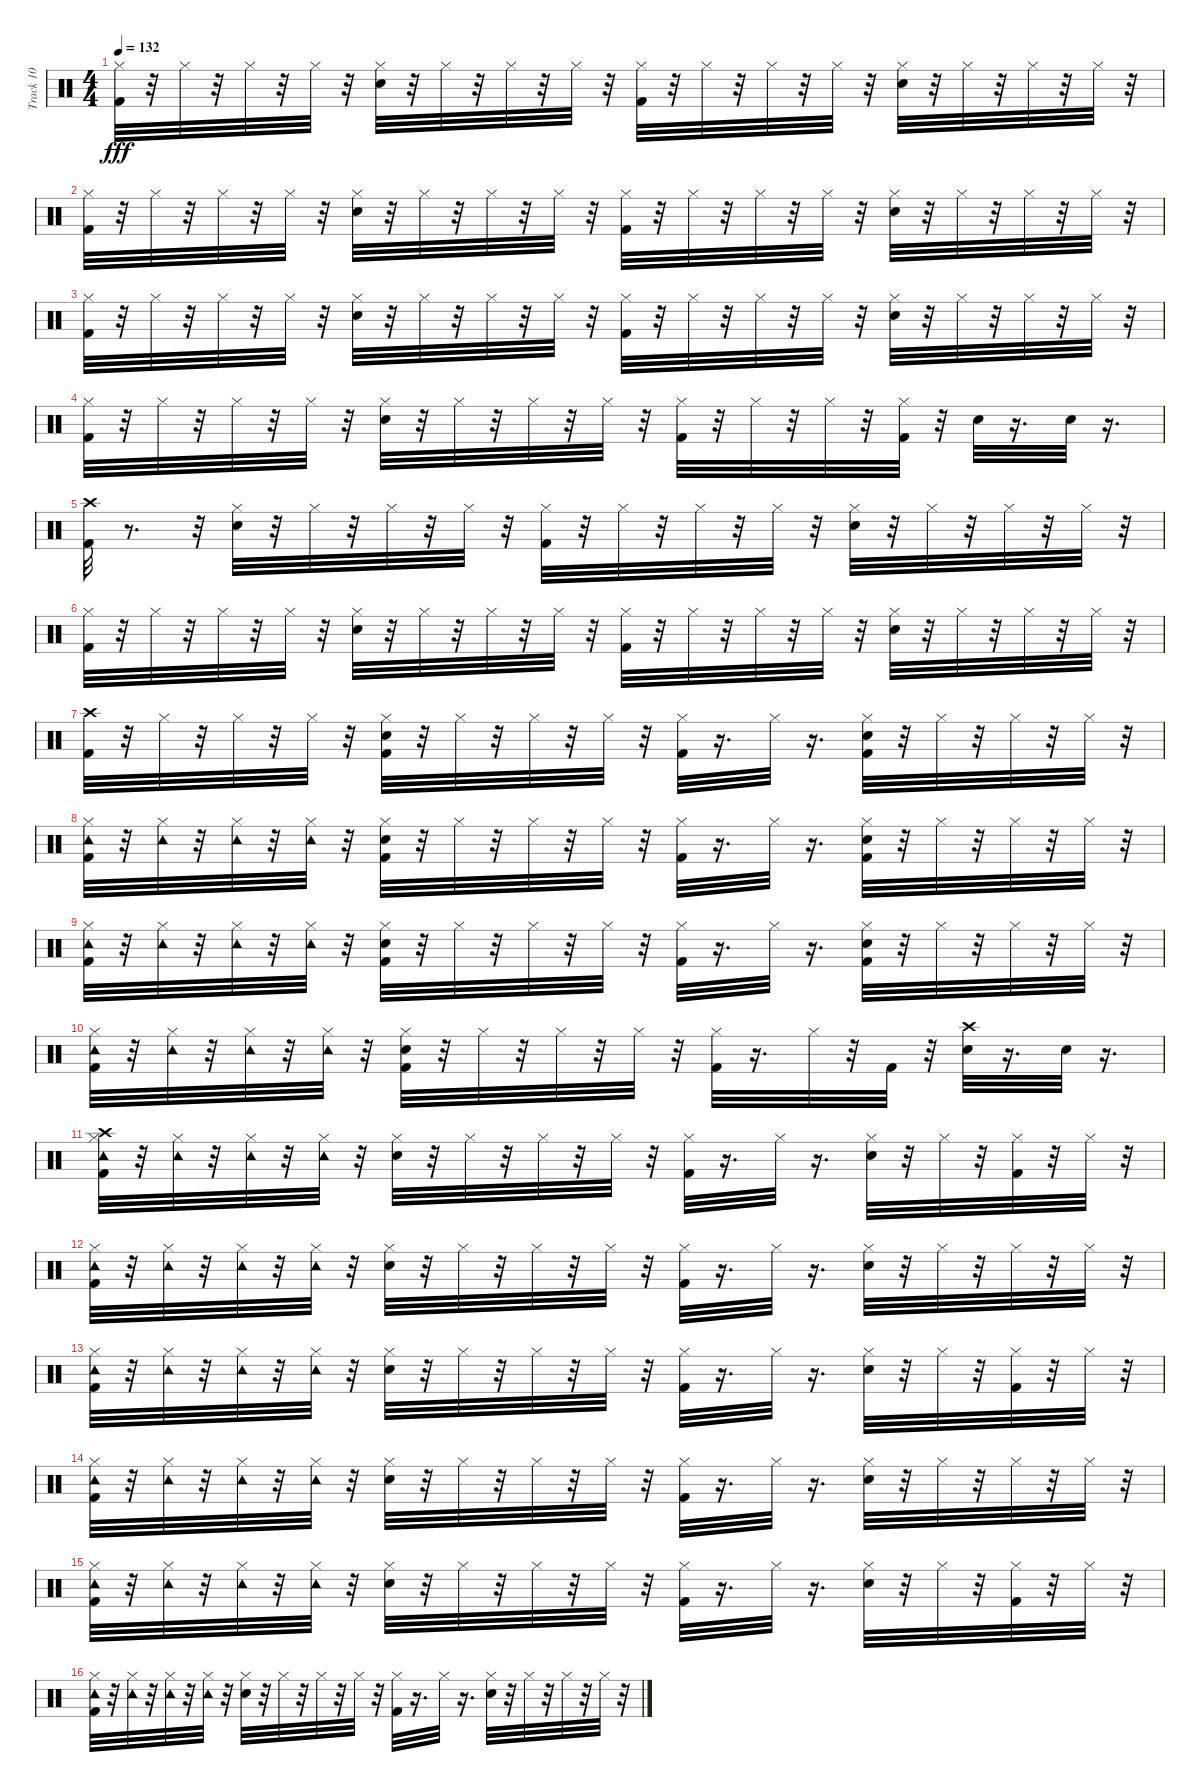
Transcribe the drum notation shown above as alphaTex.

\track ("Track 10" "Track 10") {instrument percussion}
\staff {score}
\articulation defaults
\ts (4 4)
\tempo 132
\clef neutral
\ks c
("Kick (hit) 2" "Hi-Hat (closed)").32{dy fff} r.32 "Hi-Hat (closed)".32 r.32 "Hi-Hat (closed)".32 r.32 "Hi-Hat (closed)".32 r.32 ("Snare (hit) 2" "Hi-Hat (closed)").32 r.32 "Hi-Hat (closed)".32 r.32 "Hi-Hat (closed)".32 r.32 "Hi-Hat (closed)".32 r.32 ("Kick (hit) 2" "Hi-Hat (closed)").32 r.32 "Hi-Hat (closed)".32 r.32 "Hi-Hat (closed)".32 r.32 "Hi-Hat (closed)".32 r.32 ("Snare (hit) 2" "Hi-Hat (closed)").32 r.32 "Hi-Hat (closed)".32 r.32 "Hi-Hat (closed)".32 r.32 "Hi-Hat (closed)".32 r.32 |
("Kick (hit) 2" "Hi-Hat (closed)").32 r.32 "Hi-Hat (closed)".32 r.32 "Hi-Hat (closed)".32 r.32 "Hi-Hat (closed)".32 r.32 ("Snare (hit) 2" "Hi-Hat (closed)").32 r.32 "Hi-Hat (closed)".32 r.32 "Hi-Hat (closed)".32 r.32 "Hi-Hat (closed)".32 r.32 ("Kick (hit) 2" "Hi-Hat (closed)").32 r.32 "Hi-Hat (closed)".32 r.32 "Hi-Hat (closed)".32 r.32 "Hi-Hat (closed)".32 r.32 ("Snare (hit) 2" "Hi-Hat (closed)").32 r.32 "Hi-Hat (closed)".32 r.32 "Hi-Hat (closed)".32 r.32 "Hi-Hat (closed)".32 r.32 |
("Kick (hit) 2" "Hi-Hat (closed)").32 r.32 "Hi-Hat (closed)".32 r.32 "Hi-Hat (closed)".32 r.32 "Hi-Hat (closed)".32 r.32 ("Snare (hit) 2" "Hi-Hat (closed)").32 r.32 "Hi-Hat (closed)".32 r.32 "Hi-Hat (closed)".32 r.32 "Hi-Hat (closed)".32 r.32 ("Kick (hit) 2" "Hi-Hat (closed)").32 r.32 "Hi-Hat (closed)".32 r.32 "Hi-Hat (closed)".32 r.32 "Hi-Hat (closed)".32 r.32 ("Snare (hit) 2" "Hi-Hat (closed)").32 r.32 "Hi-Hat (closed)".32 r.32 "Hi-Hat (closed)".32 r.32 "Hi-Hat (closed)".32 r.32 |
("Kick (hit) 2" "Hi-Hat (closed)").32 r.32 "Hi-Hat (closed)".32 r.32 "Hi-Hat (closed)".32 r.32 "Hi-Hat (closed)".32 r.32 ("Snare (hit) 2" "Hi-Hat (closed)").32 r.32 "Hi-Hat (closed)".32 r.32 "Hi-Hat (closed)".32 r.32 "Hi-Hat (closed)".32 r.32 ("Kick (hit) 2" "Hi-Hat (closed)").32 r.32 "Hi-Hat (closed)".32 r.32 "Hi-Hat (closed)".32 r.32 ("Kick (hit) 2" "Hi-Hat (closed)").32 r.32 "Snare (hit) 2".32 r.16{d} "Snare (hit) 2".32 r.16{d} |
("Crash high (hit)" "Kick (hit) 2").32 r.8{d} r.32 ("Snare (hit) 2" "Hi-Hat (closed)").32 r.32 "Hi-Hat (closed)".32 r.32 "Hi-Hat (closed)".32 r.32 "Hi-Hat (closed)".32 r.32 ("Kick (hit) 2" "Hi-Hat (closed)").32 r.32 "Hi-Hat (closed)".32 r.32 "Hi-Hat (closed)".32 r.32 "Hi-Hat (closed)".32 r.32 ("Snare (hit) 2" "Hi-Hat (closed)").32 r.32 "Hi-Hat (closed)".32 r.32 "Hi-Hat (closed)".32 r.32 "Hi-Hat (closed)".32 r.32 |
("Kick (hit) 2" "Hi-Hat (closed)").32 r.32 "Hi-Hat (closed)".32 r.32 "Hi-Hat (closed)".32 r.32 "Hi-Hat (closed)".32 r.32 ("Snare (hit) 2" "Hi-Hat (closed)").32 r.32 "Hi-Hat (closed)".32 r.32 "Hi-Hat (closed)".32 r.32 "Hi-Hat (closed)".32 r.32 ("Kick (hit) 2" "Hi-Hat (closed)").32 r.32 "Hi-Hat (closed)".32 r.32 "Hi-Hat (closed)".32 r.32 "Hi-Hat (closed)".32 r.32 ("Snare (hit) 2" "Hi-Hat (closed)").32 r.32 "Hi-Hat (closed)".32 r.32 "Hi-Hat (closed)".32 r.32 "Hi-Hat (closed)".32 r.32 |
("Crash high (hit)" "Kick (hit) 2").32 r.32 "Hi-Hat (closed)".32 r.32 "Hi-Hat (closed)".32 r.32 "Hi-Hat (closed)".32 r.32 ("Kick (hit) 2" "Snare (hit) 2" "Hi-Hat (closed)").32 r.32 "Hi-Hat (closed)".32 r.32 "Hi-Hat (closed)".32 r.32 "Hi-Hat (closed)".32 r.32 ("Kick (hit) 2" "Hi-Hat (closed)").32 r.16{d} "Hi-Hat (closed)".32 r.16{d} ("Kick (hit) 2" "Snare (hit) 2" "Hi-Hat (closed)").32 r.32 "Hi-Hat (closed)".32 r.32 "Hi-Hat (closed)".32 r.32 "Hi-Hat (closed)".32 r.32 |
("Tambourine (hit)" "Kick (hit) 2" "Hi-Hat (closed)").32 r.32 ("Tambourine (hit)" "Hi-Hat (closed)").32 r.32 ("Tambourine (hit)" "Hi-Hat (closed)").32 r.32 ("Tambourine (hit)" "Hi-Hat (closed)").32 r.32 ("Kick (hit) 2" "Snare (hit) 2" "Hi-Hat (closed)").32 r.32 "Hi-Hat (closed)".32 r.32 "Hi-Hat (closed)".32 r.32 "Hi-Hat (closed)".32 r.32 ("Kick (hit) 2" "Hi-Hat (closed)").32 r.16{d} "Hi-Hat (closed)".32 r.16{d} ("Kick (hit) 2" "Snare (hit) 2" "Hi-Hat (closed)").32 r.32 "Hi-Hat (closed)".32 r.32 "Hi-Hat (closed)".32 r.32 "Hi-Hat (closed)".32 r.32 |
("Tambourine (hit)" "Kick (hit) 2" "Hi-Hat (closed)").32 r.32 ("Tambourine (hit)" "Hi-Hat (closed)").32 r.32 ("Tambourine (hit)" "Hi-Hat (closed)").32 r.32 ("Tambourine (hit)" "Hi-Hat (closed)").32 r.32 ("Kick (hit) 2" "Snare (hit) 2" "Hi-Hat (closed)").32 r.32 "Hi-Hat (closed)".32 r.32 "Hi-Hat (closed)".32 r.32 "Hi-Hat (closed)".32 r.32 ("Kick (hit) 2" "Hi-Hat (closed)").32 r.16{d} "Hi-Hat (closed)".32 r.16{d} ("Kick (hit) 2" "Snare (hit) 2" "Hi-Hat (closed)").32 r.32 "Hi-Hat (closed)".32 r.32 "Hi-Hat (closed)".32 r.32 "Hi-Hat (closed)".32 r.32 |
("Tambourine (hit)" "Kick (hit) 2" "Hi-Hat (closed)").32 r.32 ("Tambourine (hit)" "Hi-Hat (closed)").32 r.32 ("Tambourine (hit)" "Hi-Hat (closed)").32 r.32 ("Tambourine (hit)" "Hi-Hat (closed)").32 r.32 ("Kick (hit) 2" "Snare (hit) 2" "Hi-Hat (closed)").32 r.32 "Hi-Hat (closed)".32 r.32 "Hi-Hat (closed)".32 r.32 "Hi-Hat (closed)".32 r.32 ("Kick (hit) 2" "Hi-Hat (closed)").32 r.16{d} "Hi-Hat (closed)".32 r.32 "Kick (hit) 2".32 r.32 ("Crash high (hit)" "Snare (hit) 2").32 r.16{d} "Snare (hit) 2".32 r.16{d} |
("Tambourine (hit)" "Crash high (hit)" "Kick (hit) 2" "Hi-Hat (closed)").32 r.32 ("Tambourine (hit)" "Hi-Hat (closed)").32 r.32 ("Tambourine (hit)" "Hi-Hat (closed)").32 r.32 ("Tambourine (hit)" "Hi-Hat (closed)").32 r.32 ("Snare (hit) 2" "Hi-Hat (closed)").32 r.32 "Hi-Hat (closed)".32 r.32 "Hi-Hat (closed)".32 r.32 "Hi-Hat (closed)".32 r.32 ("Kick (hit) 2" "Hi-Hat (closed)").32 r.16{d} "Hi-Hat (closed)".32 r.16{d} ("Snare (hit) 2" "Hi-Hat (closed)").32 r.32 "Hi-Hat (closed)".32 r.32 ("Kick (hit) 2" "Hi-Hat (closed)").32 r.32 "Hi-Hat (closed)".32 r.32 |
("Tambourine (hit)" "Kick (hit) 2" "Hi-Hat (closed)").32 r.32 ("Tambourine (hit)" "Hi-Hat (closed)").32 r.32 ("Tambourine (hit)" "Hi-Hat (closed)").32 r.32 ("Tambourine (hit)" "Hi-Hat (closed)").32 r.32 ("Snare (hit) 2" "Hi-Hat (closed)").32 r.32 "Hi-Hat (closed)".32 r.32 "Hi-Hat (closed)".32 r.32 "Hi-Hat (closed)".32 r.32 ("Kick (hit) 2" "Hi-Hat (closed)").32 r.16{d} "Hi-Hat (closed)".32 r.16{d} ("Snare (hit) 2" "Hi-Hat (closed)").32 r.32 "Hi-Hat (closed)".32 r.32 "Hi-Hat (closed)".32 r.32 "Hi-Hat (closed)".32 r.32 |
("Tambourine (hit)" "Kick (hit) 2" "Hi-Hat (closed)").32 r.32 ("Tambourine (hit)" "Hi-Hat (closed)").32 r.32 ("Tambourine (hit)" "Hi-Hat (closed)").32 r.32 ("Tambourine (hit)" "Hi-Hat (closed)").32 r.32 ("Snare (hit) 2" "Hi-Hat (closed)").32 r.32 "Hi-Hat (closed)".32 r.32 "Hi-Hat (closed)".32 r.32 "Hi-Hat (closed)".32 r.32 ("Kick (hit) 2" "Hi-Hat (closed)").32 r.16{d} "Hi-Hat (closed)".32 r.16{d} ("Snare (hit) 2" "Hi-Hat (closed)").32 r.32 "Hi-Hat (closed)".32 r.32 ("Kick (hit) 2" "Hi-Hat (closed)").32 r.32 "Hi-Hat (closed)".32 r.32 |
("Tambourine (hit)" "Kick (hit) 2" "Hi-Hat (closed)").32 r.32 ("Tambourine (hit)" "Hi-Hat (closed)").32 r.32 ("Tambourine (hit)" "Hi-Hat (closed)").32 r.32 ("Tambourine (hit)" "Hi-Hat (closed)").32 r.32 ("Snare (hit) 2" "Hi-Hat (closed)").32 r.32 "Hi-Hat (closed)".32 r.32 "Hi-Hat (closed)".32 r.32 "Hi-Hat (closed)".32 r.32 ("Kick (hit) 2" "Hi-Hat (closed)").32 r.16{d} "Hi-Hat (closed)".32 r.16{d} ("Snare (hit) 2" "Hi-Hat (closed)").32 r.32 "Hi-Hat (closed)".32 r.32 "Hi-Hat (closed)".32 r.32 "Hi-Hat (closed)".32 r.32 |
("Tambourine (hit)" "Kick (hit) 2" "Hi-Hat (closed)").32 r.32 ("Tambourine (hit)" "Hi-Hat (closed)").32 r.32 ("Tambourine (hit)" "Hi-Hat (closed)").32 r.32 ("Tambourine (hit)" "Hi-Hat (closed)").32 r.32 ("Snare (hit) 2" "Hi-Hat (closed)").32 r.32 "Hi-Hat (closed)".32 r.32 "Hi-Hat (closed)".32 r.32 "Hi-Hat (closed)".32 r.32 ("Kick (hit) 2" "Hi-Hat (closed)").32 r.16{d} "Hi-Hat (closed)".32 r.16{d} ("Snare (hit) 2" "Hi-Hat (closed)").32 r.32 "Hi-Hat (closed)".32 r.32 ("Kick (hit) 2" "Hi-Hat (closed)").32 r.32 "Hi-Hat (closed)".32 r.32 |
("Tambourine (hit)" "Kick (hit) 2" "Hi-Hat (closed)").32 r.32 ("Tambourine (hit)" "Hi-Hat (closed)").32 r.32 ("Tambourine (hit)" "Hi-Hat (closed)").32 r.32 ("Tambourine (hit)" "Hi-Hat (closed)").32 r.32 ("Snare (hit) 2" "Hi-Hat (closed)").32 r.32 "Hi-Hat (closed)".32 r.32 "Hi-Hat (closed)".32 r.32 "Hi-Hat (closed)".32 r.32 ("Kick (hit) 2" "Hi-Hat (closed)").32 r.16{d} "Hi-Hat (closed)".32 r.16{d} ("Snare (hit) 2" "Hi-Hat (closed)").32 r.32 "Hi-Hat (closed)".32 r.32 "Hi-Hat (closed)".32 r.32 "Hi-Hat (closed)".32 r.32
